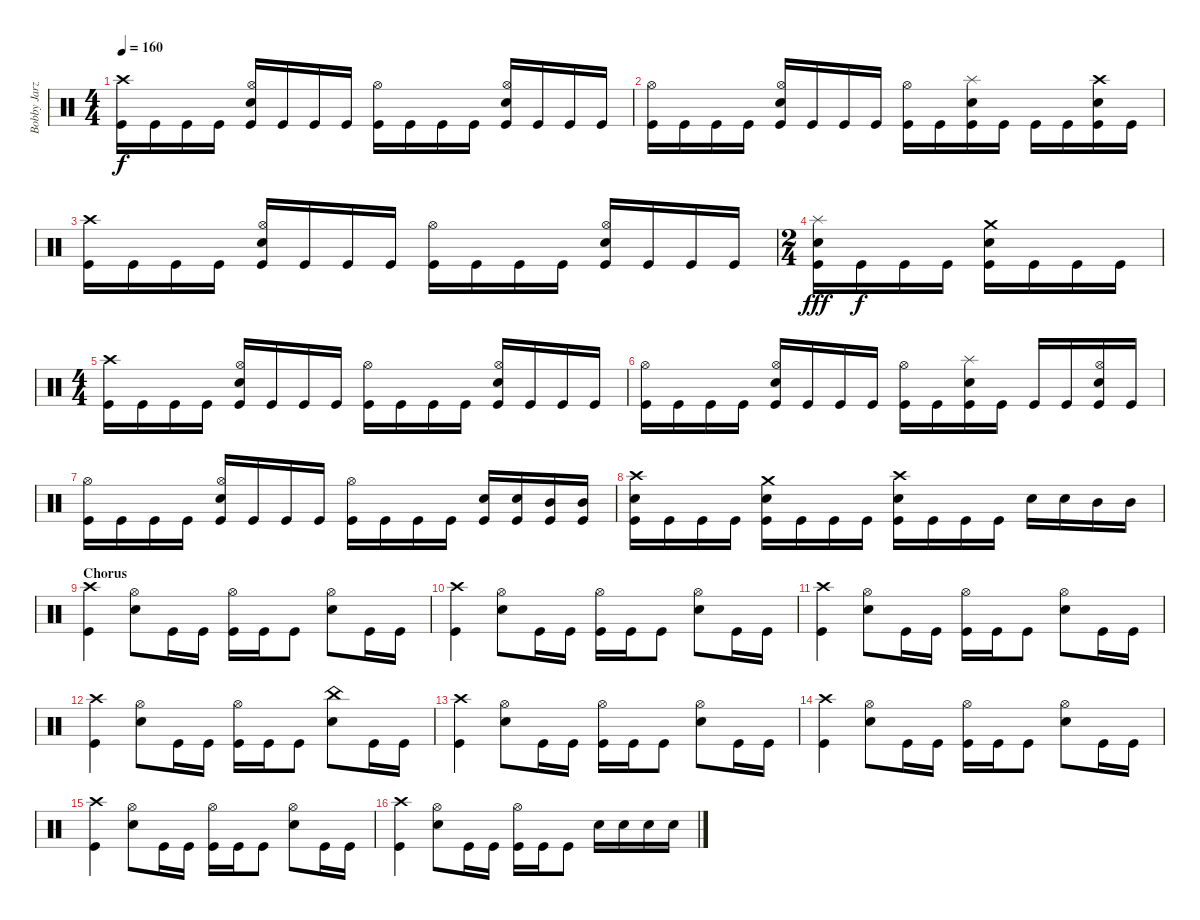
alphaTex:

\track ("Bobby Jarzombek" "Bobby Jarz") {instrument percussion}
\staff {score}
\articulation defaults
\ts (4 4)
\tempo 160
\clef neutral
\ks c
("Crash high (hit)" "Kick (hit)").16{dy f} "Kick (hit)".16 "Kick (hit)".16 "Kick (hit)".16 ("Hi-Hat (open)" "Electric Snare (hit)" "Kick (hit)").16 "Kick (hit)".16 "Kick (hit)".16 "Kick (hit)".16 ("Hi-Hat (open)" "Kick (hit)").16 "Kick (hit)".16 "Kick (hit)".16 "Kick (hit)".16 ("Hi-Hat (open)" "Electric Snare (hit)" "Kick (hit)").16 "Kick (hit)".16 "Kick (hit)".16 "Kick (hit)".16 |
("Hi-Hat (open)" "Kick (hit)").16 "Kick (hit)".16 "Kick (hit)".16 "Kick (hit)".16 ("Hi-Hat (open)" "Electric Snare (hit)" "Kick (hit)").16 "Kick (hit)".16 "Kick (hit)".16 "Kick (hit)".16 ("Hi-Hat (open)" "Kick (hit)").16 "Kick (hit)".16 ("Splash (hit)" "Electric Snare (hit)" "Kick (hit)").16 "Kick (hit)".16 "Kick (hit)".16 "Kick (hit)".16 ("Crash high (hit)" "Electric Snare (hit)" "Kick (hit)").16 "Kick (hit)".16 |
("Crash high (hit)" "Kick (hit)").16 "Kick (hit)".16 "Kick (hit)".16 "Kick (hit)".16 ("Hi-Hat (open)" "Electric Snare (hit)" "Kick (hit)").16 "Kick (hit)".16 "Kick (hit)".16 "Kick (hit)".16 ("Hi-Hat (open)" "Kick (hit)").16 "Kick (hit)".16 "Kick (hit)".16 "Kick (hit)".16 ("Hi-Hat (open)" "Electric Snare (hit)" "Kick (hit)").16 "Kick (hit)".16 "Kick (hit)".16 "Kick (hit)".16 |
\ts (2 4)
("Splash (hit)" "Electric Snare (hit)" "Kick (hit)").16{dy fff} "Kick (hit)".16{dy f} "Kick (hit)".16 "Kick (hit)".16 ("Crash medium (hit)" "Electric Snare (hit)" "Kick (hit)").16 "Kick (hit)".16 "Kick (hit)".16 "Kick (hit)".16 |
\ts (4 4)
("Crash high (hit)" "Kick (hit)").16 "Kick (hit)".16 "Kick (hit)".16 "Kick (hit)".16 ("Hi-Hat (open)" "Electric Snare (hit)" "Kick (hit)").16 "Kick (hit)".16 "Kick (hit)".16 "Kick (hit)".16 ("Hi-Hat (open)" "Kick (hit)").16 "Kick (hit)".16 "Kick (hit)".16 "Kick (hit)".16 ("Hi-Hat (open)" "Electric Snare (hit)" "Kick (hit)").16 "Kick (hit)".16 "Kick (hit)".16 "Kick (hit)".16 |
("Hi-Hat (open)" "Kick (hit)").16 "Kick (hit)".16 "Kick (hit)".16 "Kick (hit)".16 ("Hi-Hat (open)" "Electric Snare (hit)" "Kick (hit)").16 "Kick (hit)".16 "Kick (hit)".16 "Kick (hit)".16 ("Hi-Hat (open)" "Kick (hit)").16 "Kick (hit)".16 ("Splash (hit)" "Electric Snare (hit)" "Kick (hit)").16 "Kick (hit)".16 "Kick (hit)".16 "Kick (hit)".16 ("Hi-Hat (open)" "Electric Snare (hit)" "Kick (hit)").16 "Kick (hit)".16 |
("Hi-Hat (open)" "Kick (hit)").16 "Kick (hit)".16 "Kick (hit)".16 "Kick (hit)".16 ("Hi-Hat (open)" "Electric Snare (hit)" "Kick (hit)").16 "Kick (hit)".16 "Kick (hit)".16 "Kick (hit)".16 ("Hi-Hat (open)" "Kick (hit)").16 "Kick (hit)".16 "Kick (hit)".16 "Kick (hit)".16 ("Electric Snare (hit)" "Kick (hit)").16 ("Electric Snare (hit)" "Kick (hit)").16 ("Mid Tom (hit)" "Kick (hit)").16 ("Mid Tom (hit)" "Kick (hit)").16 |
("Crash high (hit)" "Electric Snare (hit)" "Kick (hit)").16 "Kick (hit)".16 "Kick (hit)".16 "Kick (hit)".16 ("Crash medium (hit)" "Electric Snare (hit)" "Kick (hit)").16 "Kick (hit)".16 "Kick (hit)".16 "Kick (hit)".16 ("Crash high (hit)" "Electric Snare (hit)" "Kick (hit)").16 "Kick (hit)".16 "Kick (hit)".16 "Kick (hit)".16 "Electric Snare (hit)".16 "Electric Snare (hit)".16 "Mid Tom (hit)".16 "Mid Tom (hit)".16 |
\section ("" "Chorus")
("Crash high (hit)" "Kick (hit)").4 ("Hi-Hat (open)" "Electric Snare (hit)").8 "Kick (hit)".16 "Kick (hit)".16 ("Hi-Hat (open)" "Kick (hit)").16 "Kick (hit)".16 "Kick (hit)".8 ("Hi-Hat (open)" "Electric Snare (hit)").8 "Kick (hit)".16 "Kick (hit)".16 |
("Crash high (hit)" "Kick (hit)").4 ("Hi-Hat (open)" "Electric Snare (hit)").8 "Kick (hit)".16 "Kick (hit)".16 ("Hi-Hat (open)" "Kick (hit)").16 "Kick (hit)".16 "Kick (hit)".8 ("Hi-Hat (open)" "Electric Snare (hit)").8 "Kick (hit)".16 "Kick (hit)".16 |
("Crash high (hit)" "Kick (hit)").4 ("Hi-Hat (open)" "Electric Snare (hit)").8 "Kick (hit)".16 "Kick (hit)".16 ("Hi-Hat (open)" "Kick (hit)").16 "Kick (hit)".16 "Kick (hit)".8 ("Hi-Hat (open)" "Electric Snare (hit)").8 "Kick (hit)".16 "Kick (hit)".16 |
("Crash high (hit)" "Kick (hit)").4 ("Hi-Hat (open)" "Electric Snare (hit)").8 "Kick (hit)".16 "Kick (hit)".16 ("Hi-Hat (open)" "Kick (hit)").16 "Kick (hit)".16 "Kick (hit)".8 ("China (hit)" "Electric Snare (hit)").8 "Kick (hit)".16 "Kick (hit)".16 |
("Crash high (hit)" "Kick (hit)").4 ("Hi-Hat (open)" "Electric Snare (hit)").8 "Kick (hit)".16 "Kick (hit)".16 ("Hi-Hat (open)" "Kick (hit)").16 "Kick (hit)".16 "Kick (hit)".8 ("Hi-Hat (open)" "Electric Snare (hit)").8 "Kick (hit)".16 "Kick (hit)".16 |
("Crash high (hit)" "Kick (hit)").4 ("Hi-Hat (open)" "Electric Snare (hit)").8 "Kick (hit)".16 "Kick (hit)".16 ("Hi-Hat (open)" "Kick (hit)").16 "Kick (hit)".16 "Kick (hit)".8 ("Hi-Hat (open)" "Electric Snare (hit)").8 "Kick (hit)".16 "Kick (hit)".16 |
("Crash high (hit)" "Kick (hit)").4 ("Hi-Hat (open)" "Electric Snare (hit)").8 "Kick (hit)".16 "Kick (hit)".16 ("Hi-Hat (open)" "Kick (hit)").16 "Kick (hit)".16 "Kick (hit)".8 ("Hi-Hat (open)" "Electric Snare (hit)").8 "Kick (hit)".16 "Kick (hit)".16 |
("Crash high (hit)" "Kick (hit)").4 ("Hi-Hat (open)" "Electric Snare (hit)").8 "Kick (hit)".16 "Kick (hit)".16 ("Hi-Hat (open)" "Kick (hit)").16 "Kick (hit)".16 "Kick (hit)".8 "Electric Snare (hit)".16 "Electric Snare (hit)".16 "Electric Snare (hit)".16 "Electric Snare (hit)".16
